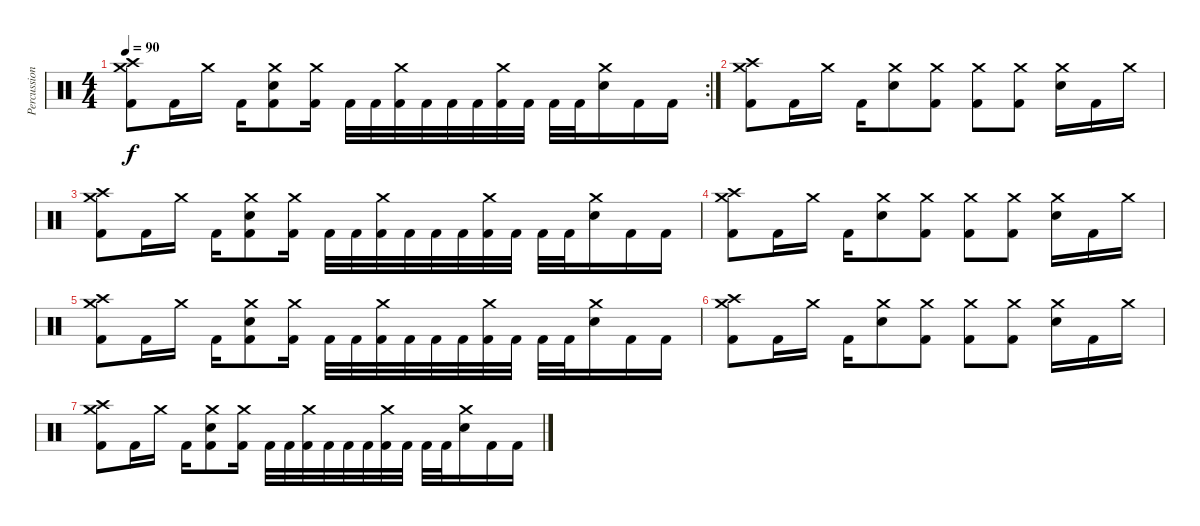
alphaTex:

\track ("Percussion" "Percussion") {instrument percussion}
\staff {score}
\articulation defaults
\rc 2
\ts (4 4)
\tempo 90
\clef neutral
\ks c
("Crash medium (hit)" "Crash high (hit)" "Kick (hit) 2").8{dy f} "Kick (hit) 2".16 "Crash medium (hit)".16 "Kick (hit) 2".16 ("Crash medium (hit)" "Electric Snare (hit)" "Kick (hit) 2").8 ("Crash medium (hit)" "Kick (hit) 2").16 "Kick (hit) 2".32 "Kick (hit) 2".32 ("Crash medium (hit)" "Kick (hit) 2").32 "Kick (hit) 2".32 "Kick (hit) 2".32 "Kick (hit) 2".32 ("Crash medium (hit)" "Kick (hit) 2").32 "Kick (hit) 2".32 "Kick (hit) 2".32 "Kick (hit) 2".32 ("Crash medium (hit)" "Electric Snare (hit)").16 "Kick (hit) 2".16 "Kick (hit) 2".16 |
("Crash medium (hit)" "Crash high (hit)" "Kick (hit) 2").8 "Kick (hit) 2".16 "Crash medium (hit)".16 "Kick (hit) 2".16 ("Crash medium (hit)" "Electric Snare (hit)").8 ("Crash medium (hit)" "Kick (hit) 2").8 ("Crash medium (hit)" "Kick (hit) 2").8 ("Crash medium (hit)" "Kick (hit) 2").8 ("Crash medium (hit)" "Electric Snare (hit)").16 "Kick (hit) 2".16 "Crash medium (hit)".16 |
("Crash medium (hit)" "Crash high (hit)" "Kick (hit) 2").8 "Kick (hit) 2".16 "Crash medium (hit)".16 "Kick (hit) 2".16 ("Crash medium (hit)" "Electric Snare (hit)" "Kick (hit) 2").8 ("Crash medium (hit)" "Kick (hit) 2").16 "Kick (hit) 2".32 "Kick (hit) 2".32 ("Crash medium (hit)" "Kick (hit) 2").32 "Kick (hit) 2".32 "Kick (hit) 2".32 "Kick (hit) 2".32 ("Crash medium (hit)" "Kick (hit) 2").32 "Kick (hit) 2".32 "Kick (hit) 2".32 "Kick (hit) 2".32 ("Crash medium (hit)" "Electric Snare (hit)").16 "Kick (hit) 2".16 "Kick (hit) 2".16 |
("Crash medium (hit)" "Crash high (hit)" "Kick (hit) 2").8 "Kick (hit) 2".16 "Crash medium (hit)".16 "Kick (hit) 2".16 ("Crash medium (hit)" "Electric Snare (hit)").8 ("Crash medium (hit)" "Kick (hit) 2").8 ("Crash medium (hit)" "Kick (hit) 2").8 ("Crash medium (hit)" "Kick (hit) 2").8 ("Crash medium (hit)" "Electric Snare (hit)").16 "Kick (hit) 2".16 "Crash medium (hit)".16 |
("Crash medium (hit)" "Crash high (hit)" "Kick (hit) 2").8 "Kick (hit) 2".16 "Crash medium (hit)".16 "Kick (hit) 2".16 ("Crash medium (hit)" "Electric Snare (hit)" "Kick (hit) 2").8 ("Crash medium (hit)" "Kick (hit) 2").16 "Kick (hit) 2".32 "Kick (hit) 2".32 ("Crash medium (hit)" "Kick (hit) 2").32 "Kick (hit) 2".32 "Kick (hit) 2".32 "Kick (hit) 2".32 ("Crash medium (hit)" "Kick (hit) 2").32 "Kick (hit) 2".32 "Kick (hit) 2".32 "Kick (hit) 2".32 ("Crash medium (hit)" "Electric Snare (hit)").16 "Kick (hit) 2".16 "Kick (hit) 2".16 |
("Crash medium (hit)" "Crash high (hit)" "Kick (hit) 2").8 "Kick (hit) 2".16 "Crash medium (hit)".16 "Kick (hit) 2".16 ("Crash medium (hit)" "Electric Snare (hit)").8 ("Crash medium (hit)" "Kick (hit) 2").8 ("Crash medium (hit)" "Kick (hit) 2").8 ("Crash medium (hit)" "Kick (hit) 2").8 ("Crash medium (hit)" "Electric Snare (hit)").16 "Kick (hit) 2".16 "Crash medium (hit)".16 |
("Crash medium (hit)" "Crash high (hit)" "Kick (hit) 2").8 "Kick (hit) 2".16 "Crash medium (hit)".16 "Kick (hit) 2".16 ("Crash medium (hit)" "Electric Snare (hit)" "Kick (hit) 2").8 ("Crash medium (hit)" "Kick (hit) 2").16 "Kick (hit) 2".32 "Kick (hit) 2".32 ("Crash medium (hit)" "Kick (hit) 2").32 "Kick (hit) 2".32 "Kick (hit) 2".32 "Kick (hit) 2".32 ("Crash medium (hit)" "Kick (hit) 2").32 "Kick (hit) 2".32 "Kick (hit) 2".32 "Kick (hit) 2".32 ("Crash medium (hit)" "Electric Snare (hit)").16 "Kick (hit) 2".16 "Kick (hit) 2".16
